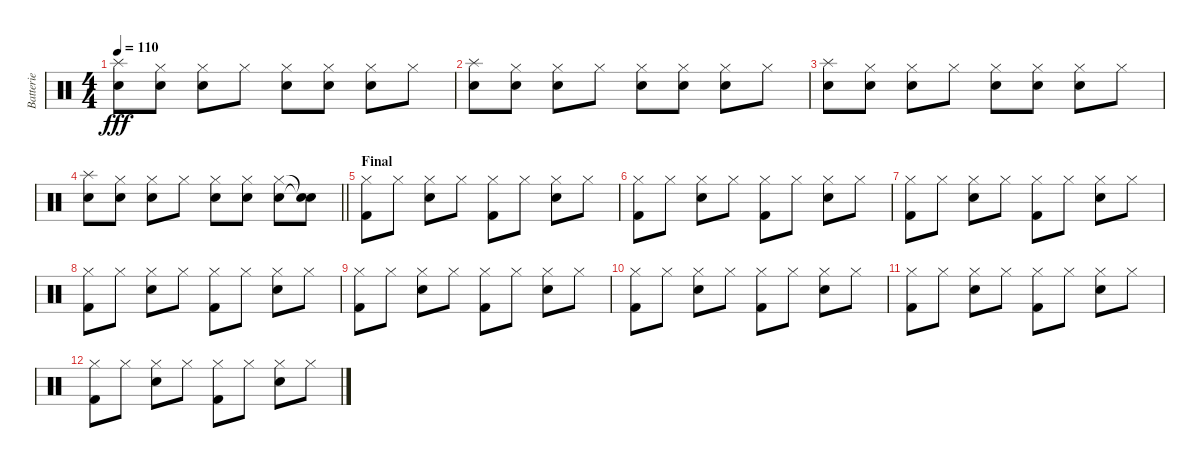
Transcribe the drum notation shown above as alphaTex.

\track ("Batterie" "Batterie") {instrument percussion}
\staff {score}
\articulation defaults
\ts (4 4)
\tempo 110
\clef neutral
\ks c
("Splash (hit)" "Electric Snare (hit)").8{dy fff} ("Hi-Hat (closed)" "Electric Snare (hit)").8 ("Hi-Hat (closed)" "Electric Snare (hit)").8 "Hi-Hat (closed)".8 ("Hi-Hat (closed)" "Electric Snare (hit)").8 ("Hi-Hat (closed)" "Electric Snare (hit)").8 ("Hi-Hat (closed)" "Electric Snare (hit)").8 "Hi-Hat (closed)".8 |
("Splash (hit)" "Electric Snare (hit)").8 ("Hi-Hat (closed)" "Electric Snare (hit)").8 ("Hi-Hat (closed)" "Electric Snare (hit)").8 "Hi-Hat (closed)".8 ("Hi-Hat (closed)" "Electric Snare (hit)").8 ("Hi-Hat (closed)" "Electric Snare (hit)").8 ("Hi-Hat (closed)" "Electric Snare (hit)").8 "Hi-Hat (closed)".8 |
("Splash (hit)" "Electric Snare (hit)").8 ("Hi-Hat (closed)" "Electric Snare (hit)").8 ("Hi-Hat (closed)" "Electric Snare (hit)").8 "Hi-Hat (closed)".8 ("Hi-Hat (closed)" "Electric Snare (hit)").8 ("Hi-Hat (closed)" "Electric Snare (hit)").8 ("Hi-Hat (closed)" "Electric Snare (hit)").8 "Hi-Hat (closed)".8 |
\barLineRight lightlight
("Splash (hit)" "Electric Snare (hit)").8 ("Hi-Hat (closed)" "Electric Snare (hit)").8 ("Hi-Hat (closed)" "Electric Snare (hit)").8 "Hi-Hat (closed)".8 ("Hi-Hat (closed)" "Electric Snare (hit)").8 ("Hi-Hat (closed)" "Electric Snare (hit)").8 ("Hi-Hat (closed)" "Electric Snare (hit)").8 ("Snare (hit)"{t} "Snare (hit)"{t}).8 |
\section ("" "Final")
("Hi-Hat (closed)" "Kick (hit) 2").8 "Hi-Hat (closed)".8 ("Hi-Hat (closed)" "Snare (hit) 2").8 "Hi-Hat (closed)".8 ("Hi-Hat (closed)" "Kick (hit) 2").8 "Hi-Hat (closed)".8 ("Hi-Hat (closed)" "Snare (hit) 2").8 "Hi-Hat (closed)".8 |
("Hi-Hat (closed)" "Kick (hit) 2").8 "Hi-Hat (closed)".8 ("Hi-Hat (closed)" "Snare (hit) 2").8 "Hi-Hat (closed)".8 ("Hi-Hat (closed)" "Kick (hit) 2").8 "Hi-Hat (closed)".8 ("Hi-Hat (closed)" "Snare (hit) 2").8 "Hi-Hat (closed)".8 |
("Hi-Hat (closed)" "Kick (hit) 2").8 "Hi-Hat (closed)".8 ("Hi-Hat (closed)" "Snare (hit) 2").8 "Hi-Hat (closed)".8 ("Hi-Hat (closed)" "Kick (hit) 2").8 "Hi-Hat (closed)".8 ("Hi-Hat (closed)" "Snare (hit) 2").8 "Hi-Hat (closed)".8 |
("Hi-Hat (closed)" "Kick (hit) 2").8 "Hi-Hat (closed)".8 ("Hi-Hat (closed)" "Snare (hit) 2").8 "Hi-Hat (closed)".8 ("Hi-Hat (closed)" "Kick (hit) 2").8 "Hi-Hat (closed)".8 ("Hi-Hat (closed)" "Snare (hit) 2").8 "Hi-Hat (closed)".8 |
("Hi-Hat (closed)" "Kick (hit) 2").8 "Hi-Hat (closed)".8 ("Hi-Hat (closed)" "Snare (hit) 2").8 "Hi-Hat (closed)".8 ("Hi-Hat (closed)" "Kick (hit) 2").8 "Hi-Hat (closed)".8 ("Hi-Hat (closed)" "Snare (hit) 2").8 "Hi-Hat (closed)".8 |
("Hi-Hat (closed)" "Kick (hit) 2").8 "Hi-Hat (closed)".8 ("Hi-Hat (closed)" "Snare (hit) 2").8 "Hi-Hat (closed)".8 ("Hi-Hat (closed)" "Kick (hit) 2").8 "Hi-Hat (closed)".8 ("Hi-Hat (closed)" "Snare (hit) 2").8 "Hi-Hat (closed)".8 |
("Hi-Hat (closed)" "Kick (hit) 2").8 "Hi-Hat (closed)".8 ("Hi-Hat (closed)" "Snare (hit) 2").8 "Hi-Hat (closed)".8 ("Hi-Hat (closed)" "Kick (hit) 2").8 "Hi-Hat (closed)".8 ("Hi-Hat (closed)" "Snare (hit) 2").8 "Hi-Hat (closed)".8 |
("Hi-Hat (closed)" "Kick (hit) 2").8 "Hi-Hat (closed)".8 ("Hi-Hat (closed)" "Snare (hit) 2").8 "Hi-Hat (closed)".8 ("Hi-Hat (closed)" "Kick (hit) 2").8 "Hi-Hat (closed)".8 ("Hi-Hat (closed)" "Snare (hit) 2").8 "Hi-Hat (closed)".8
